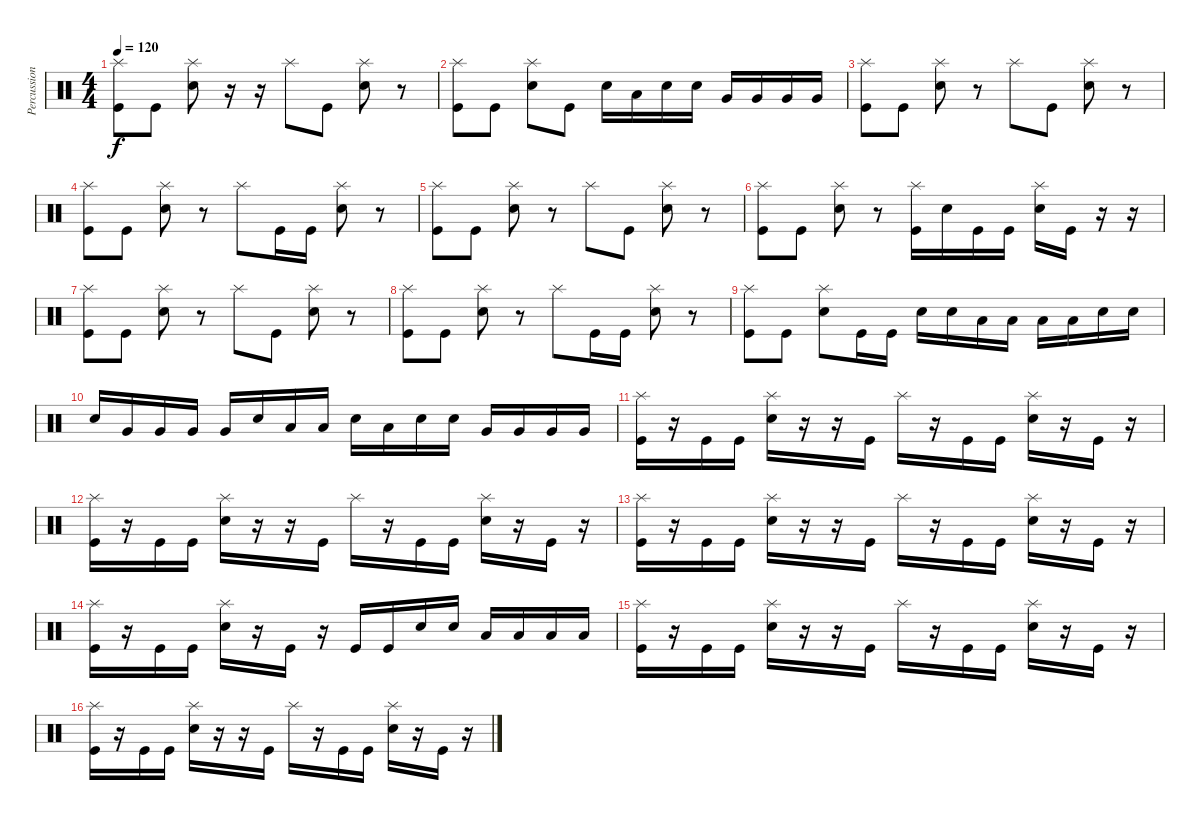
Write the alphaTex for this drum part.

\track ("Percussion" "Percussion") {instrument percussion}
\staff {score}
\articulation defaults
\ts (4 4)
\tempo 120
\clef neutral
\ks c
("Splash (hit)" "Kick (hit)").8{dy f} "Kick (hit)".8 ("Splash (hit)" "Electric Snare (hit)").8 r.16 r.16 "Splash (hit)".8 "Kick (hit)".8 ("Splash (hit)" "Electric Snare (hit)").8 r.8 |
("Splash (hit)" "Kick (hit)").8 "Kick (hit)".8 ("Splash (hit)" "Electric Snare (hit)").8 "Kick (hit)".8 "Electric Snare (hit)".16 "Low Tom (hit)".16 "Electric Snare (hit)".16 "Electric Snare (hit)".16 "Very Low Tom (hit)".16 "Very Low Tom (hit)".16 "Very Low Tom (hit)".16 "Very Low Tom (hit)".16 |
("Splash (hit)" "Kick (hit)").8{volume 16} "Kick (hit)".8 ("Splash (hit)" "Electric Snare (hit)").8 r.8 "Splash (hit)".8 "Kick (hit)".8 ("Splash (hit)" "Electric Snare (hit)").8 r.8 |
("Splash (hit)" "Kick (hit)").8 "Kick (hit)".8 ("Splash (hit)" "Electric Snare (hit)").8 r.8 "Splash (hit)".8 "Kick (hit)".16 "Kick (hit)".16 ("Splash (hit)" "Electric Snare (hit)").8 r.8 |
("Splash (hit)" "Kick (hit)").8 "Kick (hit)".8 ("Splash (hit)" "Electric Snare (hit)").8 r.8 "Splash (hit)".8 "Kick (hit)".8 ("Splash (hit)" "Electric Snare (hit)").8 r.8 |
("Splash (hit)" "Kick (hit)").8 "Kick (hit)".8 ("Splash (hit)" "Electric Snare (hit)").8 r.8 ("Splash (hit)" "Kick (hit)").16 "Electric Snare (hit)".16 "Kick (hit)".16 "Kick (hit)".16 ("Splash (hit)" "Electric Snare (hit)").16 "Kick (hit)".16 r.16 r.16 |
("Splash (hit)" "Kick (hit)").8 "Kick (hit)".8 ("Splash (hit)" "Electric Snare (hit)").8 r.8 "Splash (hit)".8 "Kick (hit)".8 ("Splash (hit)" "Electric Snare (hit)").8 r.8 |
("Splash (hit)" "Kick (hit)").8 "Kick (hit)".8 ("Splash (hit)" "Electric Snare (hit)").8 r.8 "Splash (hit)".8 "Kick (hit)".16 "Kick (hit)".16 ("Splash (hit)" "Electric Snare (hit)").8 r.8 |
("Splash (hit)" "Kick (hit)").8 "Kick (hit)".8 ("Splash (hit)" "Electric Snare (hit)").8 "Kick (hit)".16 "Kick (hit)".16 "Electric Snare (hit)".16 "Electric Snare (hit)".16 "Low Tom (hit)".16 "Low Tom (hit)".16 "Low Tom (hit)".16 "Low Tom (hit)".16 "Electric Snare (hit)".16 "Electric Snare (hit)".16 |
"Electric Snare (hit)".16 "Very Low Tom (hit)".16 "Very Low Tom (hit)".16 "Very Low Tom (hit)".16 "Very Low Tom (hit)".16 "Electric Snare (hit)".16 "Low Tom (hit)".16 "Low Tom (hit)".16 "Electric Snare (hit)".16 "Low Tom (hit)".16 "Electric Snare (hit)".16 "Electric Snare (hit)".16 "Very Low Tom (hit)".16 "Very Low Tom (hit)".16 "Very Low Tom (hit)".16 "Very Low Tom (hit)".16 |
("Splash (hit)" "Kick (hit)").16 r.16 "Kick (hit)".16 "Kick (hit)".16 ("Splash (hit)" "Electric Snare (hit)").16 r.16 r.16 "Kick (hit)".16 "Splash (hit)".16 r.16 "Kick (hit)".16 "Kick (hit)".16 ("Splash (hit)" "Electric Snare (hit)").16 r.16 "Kick (hit)".16 r.16 |
("Splash (hit)" "Kick (hit)").16 r.16 "Kick (hit)".16 "Kick (hit)".16 ("Splash (hit)" "Electric Snare (hit)").16 r.16 r.16 "Kick (hit)".16 "Splash (hit)".16 r.16 "Kick (hit)".16 "Kick (hit)".16 ("Splash (hit)" "Electric Snare (hit)").16 r.16 "Kick (hit)".16 r.16 |
("Splash (hit)" "Kick (hit)").16 r.16 "Kick (hit)".16 "Kick (hit)".16 ("Splash (hit)" "Electric Snare (hit)").16 r.16 r.16 "Kick (hit)".16 "Splash (hit)".16 r.16 "Kick (hit)".16 "Kick (hit)".16 ("Splash (hit)" "Electric Snare (hit)").16 r.16 "Kick (hit)".16 r.16 |
("Splash (hit)" "Kick (hit)").16 r.16 "Kick (hit)".16 "Kick (hit)".16 ("Splash (hit)" "Electric Snare (hit)").16 r.16 "Kick (hit)".16 r.16 "Kick (hit)".16 "Kick (hit)".16 "Electric Snare (hit)".16 "Electric Snare (hit)".16 "Low Tom (hit)".16 "Low Tom (hit)".16 "Low Tom (hit)".16 "Low Tom (hit)".16 |
("Splash (hit)" "Kick (hit)").16 r.16 "Kick (hit)".16 "Kick (hit)".16 ("Splash (hit)" "Electric Snare (hit)").16 r.16 r.16 "Kick (hit)".16 "Splash (hit)".16 r.16 "Kick (hit)".16 "Kick (hit)".16 ("Splash (hit)" "Electric Snare (hit)").16 r.16 "Kick (hit)".16 r.16 |
("Splash (hit)" "Kick (hit)").16 r.16 "Kick (hit)".16 "Kick (hit)".16 ("Splash (hit)" "Electric Snare (hit)").16 r.16 r.16 "Kick (hit)".16 "Splash (hit)".16 r.16 "Kick (hit)".16 "Kick (hit)".16 ("Splash (hit)" "Electric Snare (hit)").16 r.16 "Kick (hit)".16 r.16
